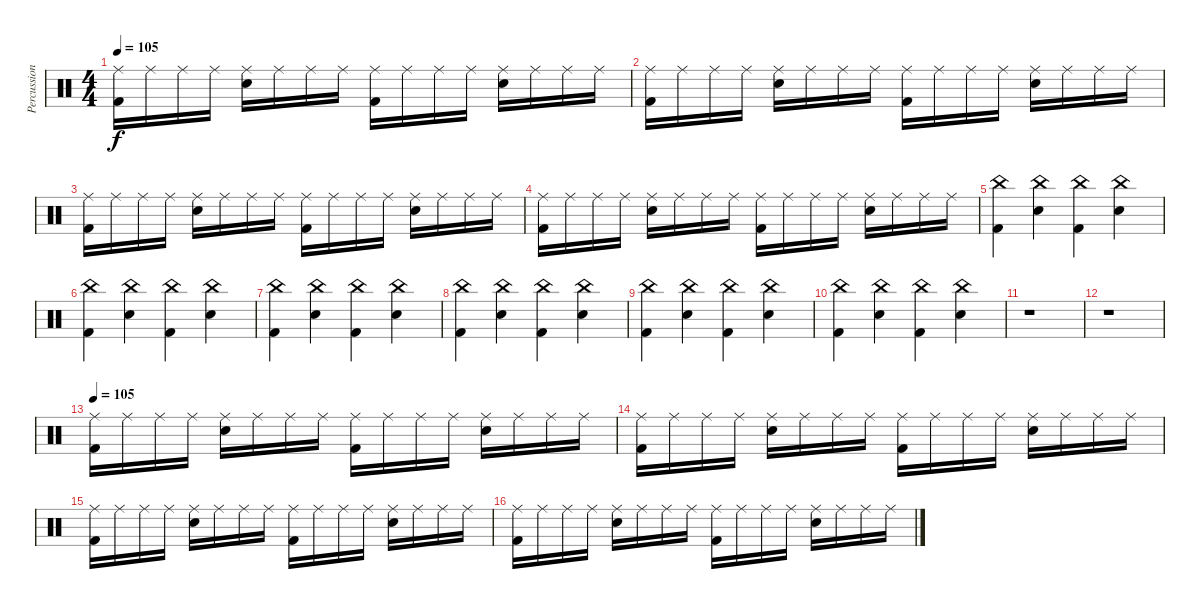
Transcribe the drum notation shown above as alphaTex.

\track ("Percussions" "Percussion") {instrument percussion}
\staff {score}
\articulation defaults
\ts (4 4)
\tempo 105
\clef neutral
\ks c
("Ride (middle)" "Kick (hit) 2").16{dy f} "Ride (middle)".16 "Ride (middle)".16 "Ride (middle)".16 ("Ride (middle)" "Electric Snare (hit)").16 "Ride (middle)".16 "Ride (middle)".16 "Ride (middle)".16 ("Ride (middle)" "Kick (hit) 2").16 "Ride (middle)".16 "Ride (middle)".16 "Ride (middle)".16 ("Ride (middle)" "Electric Snare (hit)").16 "Ride (middle)".16 "Ride (middle)".16 "Ride (middle)".16 |
("Ride (middle)" "Kick (hit) 2").16 "Ride (middle)".16 "Ride (middle)".16 "Ride (middle)".16 ("Ride (middle)" "Electric Snare (hit)").16 "Ride (middle)".16 "Ride (middle)".16 "Ride (middle)".16 ("Ride (middle)" "Kick (hit) 2").16 "Ride (middle)".16 "Ride (middle)".16 "Ride (middle)".16 ("Ride (middle)" "Electric Snare (hit)").16 "Ride (middle)".16 "Ride (middle)".16 "Ride (middle)".16 |
("Ride (middle)" "Kick (hit) 2").16 "Ride (middle)".16 "Ride (middle)".16 "Ride (middle)".16 ("Ride (middle)" "Electric Snare (hit)").16 "Ride (middle)".16 "Ride (middle)".16 "Ride (middle)".16 ("Ride (middle)" "Kick (hit) 2").16 "Ride (middle)".16 "Ride (middle)".16 "Ride (middle)".16 ("Ride (middle)" "Electric Snare (hit)").16 "Ride (middle)".16 "Ride (middle)".16 "Ride (middle)".16 |
("Ride (middle)" "Kick (hit) 2").16 "Ride (middle)".16 "Ride (middle)".16 "Ride (middle)".16 ("Ride (middle)" "Electric Snare (hit)").16 "Ride (middle)".16 "Ride (middle)".16 "Ride (middle)".16 ("Ride (middle)" "Kick (hit) 2").16 "Ride (middle)".16 "Ride (middle)".16 "Ride (middle)".16 ("Ride (middle)" "Electric Snare (hit)").16 "Ride (middle)".16 "Ride (middle)".16 "Ride (middle)".16 |
("China (hit)" "Kick (hit) 2").4 ("China (hit)" "Electric Snare (hit)").4 ("China (hit)" "Kick (hit) 2").4 ("China (hit)" "Electric Snare (hit)").4 |
("China (hit)" "Kick (hit) 2").4 ("China (hit)" "Electric Snare (hit)").4 ("China (hit)" "Kick (hit) 2").4 ("China (hit)" "Electric Snare (hit)").4 |
("China (hit)" "Kick (hit) 2").4 ("China (hit)" "Electric Snare (hit)").4 ("China (hit)" "Kick (hit) 2").4 ("China (hit)" "Electric Snare (hit)").4 |
("China (hit)" "Kick (hit) 2").4 ("China (hit)" "Electric Snare (hit)").4 ("China (hit)" "Kick (hit) 2").4 ("China (hit)" "Electric Snare (hit)").4 |
("China (hit)" "Kick (hit) 2").4 ("China (hit)" "Electric Snare (hit)").4 ("China (hit)" "Kick (hit) 2").4 ("China (hit)" "Electric Snare (hit)").4 |
("China (hit)" "Kick (hit) 2").4 ("China (hit)" "Electric Snare (hit)").4 ("China (hit)" "Kick (hit) 2").4 ("China (hit)" "Electric Snare (hit)").4 |
r.1 |
r.1 |
\tempo 105
("Ride (middle)" "Kick (hit) 2").16 "Ride (middle)".16 "Ride (middle)".16 "Ride (middle)".16 ("Ride (middle)" "Electric Snare (hit)").16 "Ride (middle)".16 "Ride (middle)".16 "Ride (middle)".16 ("Ride (middle)" "Kick (hit) 2").16 "Ride (middle)".16 "Ride (middle)".16 "Ride (middle)".16 ("Ride (middle)" "Electric Snare (hit)").16 "Ride (middle)".16 "Ride (middle)".16 "Ride (middle)".16 |
("Ride (middle)" "Kick (hit) 2").16 "Ride (middle)".16 "Ride (middle)".16 "Ride (middle)".16 ("Ride (middle)" "Electric Snare (hit)").16 "Ride (middle)".16 "Ride (middle)".16 "Ride (middle)".16 ("Ride (middle)" "Kick (hit) 2").16 "Ride (middle)".16 "Ride (middle)".16 "Ride (middle)".16 ("Ride (middle)" "Electric Snare (hit)").16 "Ride (middle)".16 "Ride (middle)".16 "Ride (middle)".16 |
("Ride (middle)" "Kick (hit) 2").16 "Ride (middle)".16 "Ride (middle)".16 "Ride (middle)".16 ("Ride (middle)" "Electric Snare (hit)").16 "Ride (middle)".16 "Ride (middle)".16 "Ride (middle)".16 ("Ride (middle)" "Kick (hit) 2").16 "Ride (middle)".16 "Ride (middle)".16 "Ride (middle)".16 ("Ride (middle)" "Electric Snare (hit)").16 "Ride (middle)".16 "Ride (middle)".16 "Ride (middle)".16 |
("Ride (middle)" "Kick (hit) 2").16 "Ride (middle)".16 "Ride (middle)".16 "Ride (middle)".16 ("Ride (middle)" "Electric Snare (hit)").16 "Ride (middle)".16 "Ride (middle)".16 "Ride (middle)".16 ("Ride (middle)" "Kick (hit) 2").16 "Ride (middle)".16 "Ride (middle)".16 "Ride (middle)".16 ("Ride (middle)" "Electric Snare (hit)").16 "Ride (middle)".16 "Ride (middle)".16 "Ride (middle)".16
